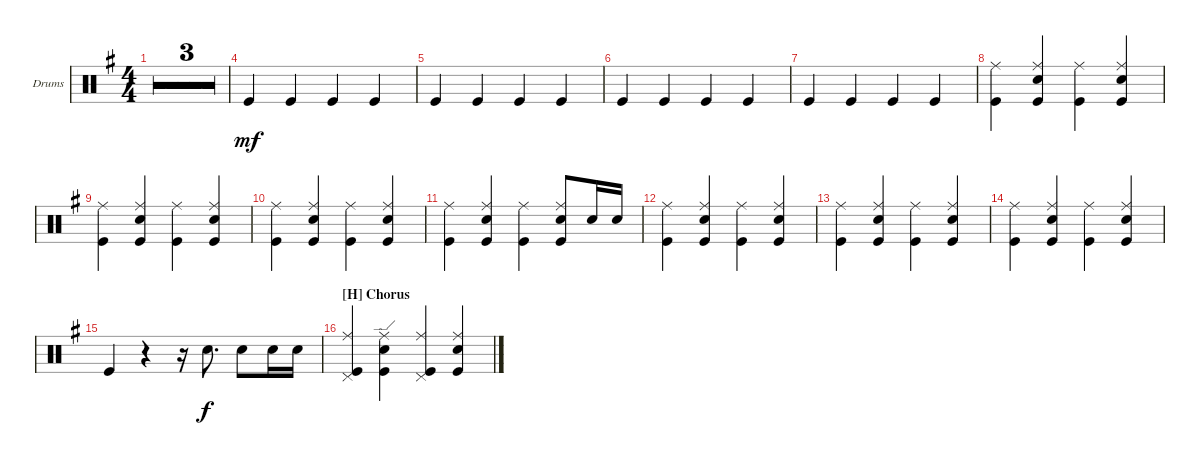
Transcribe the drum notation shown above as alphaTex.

\defaultSystemsLayout 4
\bracketExtendMode groupsimilarinstruments
\firstSystemTrackNameOrientation horizontal
\otherSystemsTrackNameOrientation horizontal
\track ("Matt Helders" "Drums") {multiBarRest instrument percussion}
\staff {score}
\articulation defaults
\ts (4 4)
\tempo 98
\clef neutral
\ks g
r.1{dy f} |
r.1 |
r.1 |
"Kick (hit)".4{dy mf} "Kick (hit)".4 "Kick (hit)".4 "Kick (hit)".4 |
"Kick (hit)".4 "Kick (hit)".4 "Kick (hit)".4 "Kick (hit)".4 |
"Kick (hit)".4 "Kick (hit)".4 "Kick (hit)".4 "Kick (hit)".4 |
"Kick (hit)".4 "Kick (hit)".4 "Kick (hit)".4 "Kick (hit)".4 |
("Kick (hit)" "Ride (middle)").4 ("Kick (hit)" "Snare (hit) 2" "Ride (middle)").4 ("Kick (hit)" "Ride (middle)").4 ("Kick (hit)" "Snare (hit) 2" "Ride (middle)").4 |
("Kick (hit)" "Ride (middle)").4 ("Kick (hit)" "Snare (hit) 2" "Ride (middle)").4 ("Kick (hit)" "Ride (middle)").4 ("Kick (hit)" "Snare (hit) 2" "Ride (middle)").4 |
("Kick (hit)" "Ride (middle)").4 ("Kick (hit)" "Snare (hit) 2" "Ride (middle)").4 ("Kick (hit)" "Ride (middle)").4 ("Kick (hit)" "Snare (hit) 2" "Ride (middle)").4 |
("Kick (hit)" "Ride (middle)").4 ("Kick (hit)" "Snare (hit) 2" "Ride (middle)").4 ("Kick (hit)" "Ride (middle)").4 ("Kick (hit)" "Snare (hit) 2" "Ride (middle)").8 "Snare (hit) 2".16 "Snare (hit) 2".16 |
("Kick (hit)" "Ride (middle)").4 ("Kick (hit)" "Snare (hit) 2" "Ride (middle)").4 ("Kick (hit)" "Ride (middle)").4 ("Kick (hit)" "Snare (hit) 2" "Ride (middle)").4 |
("Kick (hit)" "Ride (middle)").4 ("Kick (hit)" "Snare (hit) 2" "Ride (middle)").4 ("Kick (hit)" "Ride (middle)").4 ("Kick (hit)" "Snare (hit) 2" "Ride (middle)").4 |
("Kick (hit)" "Ride (middle)").4 ("Kick (hit)" "Snare (hit) 2" "Ride (middle)").4 ("Kick (hit)" "Ride (middle)").4 ("Kick (hit)" "Snare (hit) 2" "Ride (middle)").4 |
"Kick (hit)".4 r.4 r.16 "Snare (hit) 2".8{d dy f} "Snare (hit) 2".8 "Snare (hit) 2".16 "Snare (hit) 2".16 |
\section ("H" "Chorus")
("Kick (hit)" "Pedal Hi-Hat (hit)" "Ride (middle)").4 ("Snare (hit) 2" "Kick (hit)" "Ride (edge)").4 ("Kick (hit)" "Pedal Hi-Hat (hit)" "Ride (middle)").4 ("Snare (hit) 2" "Kick (hit)" "Ride (middle)").4
